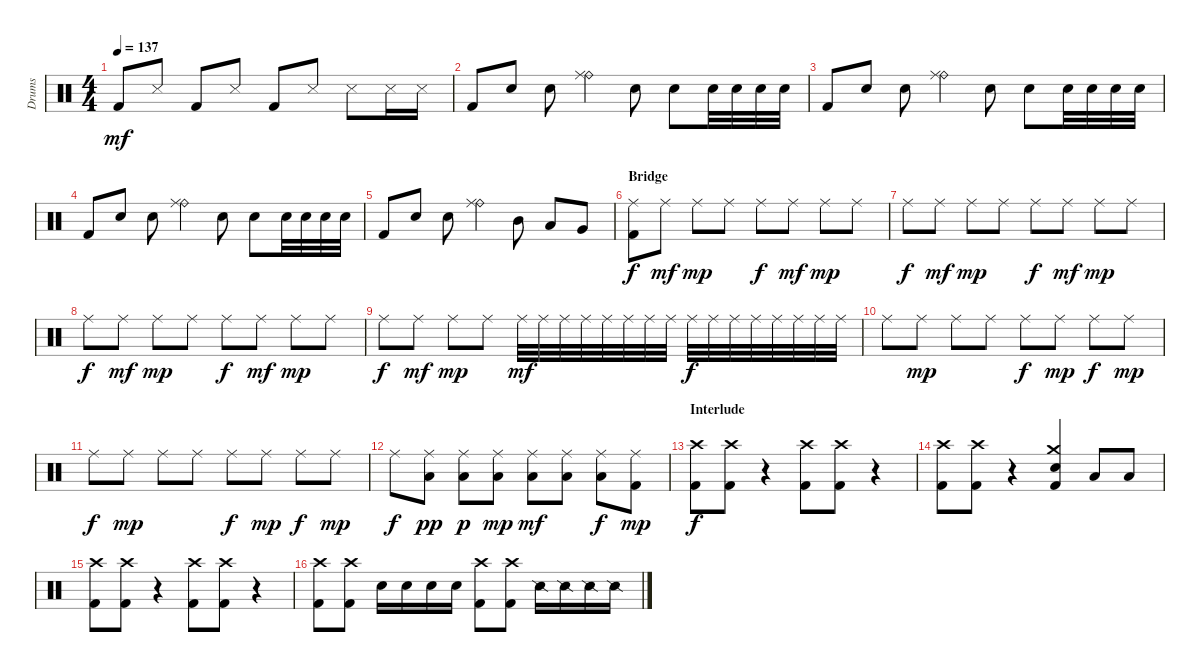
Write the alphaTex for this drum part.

\track ("Drums" "Drums") {instrument percussion}
\staff {score}
\articulation defaults
\ts (4 4)
\tempo 137
\clef neutral
\ks c "Kick (hit) 2".8{dy mf} "Snare (side stick) 3".8 "Kick (hit) 2".8 "Snare (side stick) 3".8 "Kick (hit) 2".8 "Snare (side stick) 3".8 "Snare (side stick) 3".8 "Snare (side stick) 3".16 "Snare (side stick) 3".16
|
"Kick (hit) 2".8 "Electric Snare (hit)".8 "Electric Snare (hit)".8 ("Ride (bell)" "Ride (middle)").4 "Electric Snare (hit)".8 "Electric Snare (hit)".8 "Electric Snare (hit)".32 "Electric Snare (hit)".32 "Electric Snare (hit)".32 "Electric Snare (hit)".32 |
"Kick (hit) 2".8 "Electric Snare (hit)".8 "Electric Snare (hit)".8 ("Ride (bell)" "Ride (middle)").4 "Electric Snare (hit)".8 "Electric Snare (hit)".8 "Electric Snare (hit)".32 "Electric Snare (hit)".32 "Electric Snare (hit)".32 "Electric Snare (hit)".32 |
"Kick (hit) 2".8 "Electric Snare (hit)".8 "Electric Snare (hit)".8 ("Ride (bell)" "Ride (middle)").4 "Electric Snare (hit)".8 "Electric Snare (hit)".8 "Electric Snare (hit)".32 "Electric Snare (hit)".32 "Electric Snare (hit)".32 "Electric Snare (hit)".32 |
"Kick (hit) 2".8 "Electric Snare (hit)".8 "Electric Snare (hit)".8 ("Ride (bell)" "Ride (middle)").4 "Mid Tom (hit)".8 "Low Tom (hit)".8 "Very Low Tom (hit)".8 |
\section ("" "Bridge")
("Ride (middle)" "Kick (hit) 2").8{dy f} "Ride (middle)".8{dy mf} "Ride (middle)".8{dy mp} "Ride (middle)".8 "Ride (middle)".8{dy f} "Ride (middle)".8{dy mf} "Ride (middle)".8{dy mp} "Ride (middle)".8 |
"Ride (middle)".8{dy f} "Ride (middle)".8{dy mf} "Ride (middle)".8{dy mp} "Ride (middle)".8 "Ride (middle)".8{dy f} "Ride (middle)".8{dy mf} "Ride (middle)".8{dy mp} "Ride (middle)".8 |
"Ride (middle)".8{dy f} "Ride (middle)".8{dy mf} "Ride (middle)".8{dy mp} "Ride (middle)".8 "Ride (middle)".8{dy f} "Ride (middle)".8{dy mf} "Ride (middle)".8{dy mp} "Ride (middle)".8 |
"Ride (middle)".8{dy f} "Ride (middle)".8{dy mf} "Ride (middle)".8{dy mp} "Ride (middle)".8 "Ride (middle)".32{dy mf} "Ride (middle)".32 "Ride (middle)".32 "Ride (middle)".32 "Ride (middle)".32 "Ride (middle)".32 "Ride (middle)".32 "Ride (middle)".32 "Ride (middle)".32{dy f} "Ride (middle)".32 "Ride (middle)".32 "Ride (middle)".32 "Ride (middle)".32 "Ride (middle)".32 "Ride (middle)".32 "Ride (middle)".32 |
"Ride (middle)".8 "Ride (middle)".8{dy mp} "Ride (middle)".8 "Ride (middle)".8 "Ride (middle)".8{dy f} "Ride (middle)".8{dy mp} "Ride (middle)".8{dy f} "Ride (middle)".8{dy mp} |
"Ride (middle)".8{dy f} "Ride (middle)".8{dy mp} "Ride (middle)".8 "Ride (middle)".8 "Ride (middle)".8{dy f} "Ride (middle)".8{dy mp} "Ride (middle)".8{dy f} "Ride (middle)".8{dy mp} |
"Ride (middle)".8{dy f} ("Ride (middle)" "Low Tom (hit)").8{dy pp} ("Ride (middle)" "Low Tom (hit)").8{dy p} ("Ride (middle)" "Low Tom (hit)").8{dy mp} ("Ride (middle)" "Low Tom (hit)").8{dy mf} ("Ride (middle)" "Low Tom (hit)").8 ("Ride (middle)" "Low Tom (hit)").8{dy f} ("Ride (middle)" "Kick (hit) 2").8{dy mp} |
\section ("" "Interlude")
("Crash high (hit)" "Kick (hit) 2").8{dy f} ("Crash high (hit)" "Kick (hit) 2").8 r.4 ("Crash high (hit)" "Kick (hit) 2").8 ("Crash high (hit)" "Kick (hit) 2").8 r.4 |
("Crash high (hit)" "Kick (hit) 2").8 ("Crash high (hit)" "Kick (hit) 2").8 r.4 ("Crash medium (hit)" "Snare (hit) 2" "Kick (hit) 2").4 "Low Tom (hit)".8 "Low Tom (hit)".8 |
("Crash high (hit)" "Kick (hit) 2").8 ("Crash high (hit)" "Kick (hit) 2").8 r.4 ("Crash high (hit)" "Kick (hit) 2").8 ("Crash high (hit)" "Kick (hit) 2").8 r.4 |
("Crash high (hit)" "Kick (hit) 2").8 ("Crash high (hit)" "Kick (hit) 2").8 "Snare (hit) 2".16 "Snare (hit) 2".16 "Snare (hit) 2".16 "Snare (hit) 2".16 ("Crash high (hit)" "Kick (hit) 2").8 ("Crash high (hit)" "Kick (hit) 2").8 "Snare (side stick) 2".16 "Snare (side stick) 2".16 "Snare (side stick) 2".16 "Snare (side stick) 2".16
